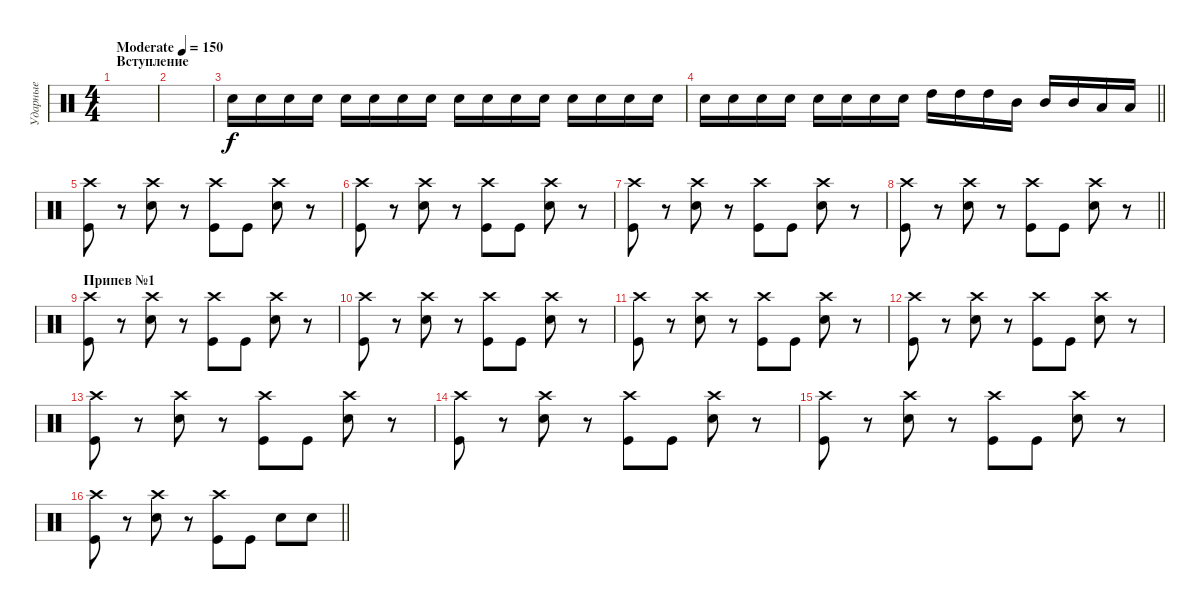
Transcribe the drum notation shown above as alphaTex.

\track ("Ударные" "Ударные") {instrument percussion}
\staff {score}
\articulation defaults
\ts (4 4)
\section ("" "Вступление")
\tempo (150 "Moderate")
\clef neutral
\ks c
|
|
"Electric Snare (hit)".16 "Electric Snare (hit)".16 "Electric Snare (hit)".16 "Electric Snare (hit)".16 "Electric Snare (hit)".16 "Electric Snare (hit)".16 "Electric Snare (hit)".16 "Electric Snare (hit)".16 "Electric Snare (hit)".16 "Electric Snare (hit)".16 "Electric Snare (hit)".16 "Electric Snare (hit)".16 "Electric Snare (hit)".16 "Electric Snare (hit)".16 "Electric Snare (hit)".16 "Electric Snare (hit)".16 |
\barLineRight lightlight "Electric Snare (hit)".16 "Electric Snare (hit)".16 "Electric Snare (hit)".16 "Electric Snare (hit)".16 "Electric Snare (hit)".16 "Electric Snare (hit)".16 "Electric Snare (hit)".16 "Electric Snare (hit)".16 "High Tom (hit)".16 "High Tom (hit)".16 "High Tom (hit)".16 "Mid Tom (hit)".16 "Mid Tom (hit)".16 "Mid Tom (hit)".16 "Low Tom (hit)".16 "Low Tom (hit)".16
|
\section ("" "")
("Kick (hit)" "Crash high (hit)").8 r.8 ("Electric Snare (hit)" "Crash high (hit)").8 r.8 ("Kick (hit)" "Crash high (hit)").8 "Kick (hit)".8 ("Electric Snare (hit)" "Crash high (hit)").8 r.8 |
("Kick (hit)" "Crash high (hit)").8 r.8 ("Electric Snare (hit)" "Crash high (hit)").8 r.8 ("Kick (hit)" "Crash high (hit)").8 "Kick (hit)".8 ("Electric Snare (hit)" "Crash high (hit)").8 r.8 |
("Kick (hit)" "Crash high (hit)").8 r.8 ("Electric Snare (hit)" "Crash high (hit)").8 r.8 ("Kick (hit)" "Crash high (hit)").8 "Kick (hit)".8 ("Electric Snare (hit)" "Crash high (hit)").8 r.8 |
\barLineRight lightlight
("Kick (hit)" "Crash high (hit)").8 r.8 ("Electric Snare (hit)" "Crash high (hit)").8 r.8 ("Kick (hit)" "Crash high (hit)").8 "Kick (hit)".8 ("Electric Snare (hit)" "Crash high (hit)").8 r.8 |
\section ("" "Припев №1")
("Kick (hit)" "Crash high (hit)").8 r.8 ("Electric Snare (hit)" "Crash high (hit)").8 r.8 ("Kick (hit)" "Crash high (hit)").8 "Kick (hit)".8 ("Electric Snare (hit)" "Crash high (hit)").8 r.8 |
("Kick (hit)" "Crash high (hit)").8 r.8 ("Electric Snare (hit)" "Crash high (hit)").8 r.8 ("Kick (hit)" "Crash high (hit)").8 "Kick (hit)".8 ("Electric Snare (hit)" "Crash high (hit)").8 r.8 |
("Kick (hit)" "Crash high (hit)").8 r.8 ("Electric Snare (hit)" "Crash high (hit)").8 r.8 ("Kick (hit)" "Crash high (hit)").8 "Kick (hit)".8 ("Electric Snare (hit)" "Crash high (hit)").8 r.8 |
("Kick (hit)" "Crash high (hit)").8 r.8 ("Electric Snare (hit)" "Crash high (hit)").8 r.8 ("Kick (hit)" "Crash high (hit)").8 "Kick (hit)".8 ("Electric Snare (hit)" "Crash high (hit)").8 r.8 |
("Kick (hit)" "Crash high (hit)").8 r.8 ("Electric Snare (hit)" "Crash high (hit)").8 r.8 ("Kick (hit)" "Crash high (hit)").8 "Kick (hit)".8 ("Electric Snare (hit)" "Crash high (hit)").8 r.8 |
("Kick (hit)" "Crash high (hit)").8 r.8 ("Electric Snare (hit)" "Crash high (hit)").8 r.8 ("Kick (hit)" "Crash high (hit)").8 "Kick (hit)".8 ("Electric Snare (hit)" "Crash high (hit)").8 r.8 |
("Kick (hit)" "Crash high (hit)").8 r.8 ("Electric Snare (hit)" "Crash high (hit)").8 r.8 ("Kick (hit)" "Crash high (hit)").8 "Kick (hit)".8 ("Electric Snare (hit)" "Crash high (hit)").8 r.8 |
\barLineRight lightlight
("Kick (hit)" "Crash high (hit)").8 r.8 ("Electric Snare (hit)" "Crash high (hit)").8 r.8 ("Kick (hit)" "Crash high (hit)").8 "Kick (hit)".8 "Electric Snare (hit)".8 "Electric Snare (hit)".8
